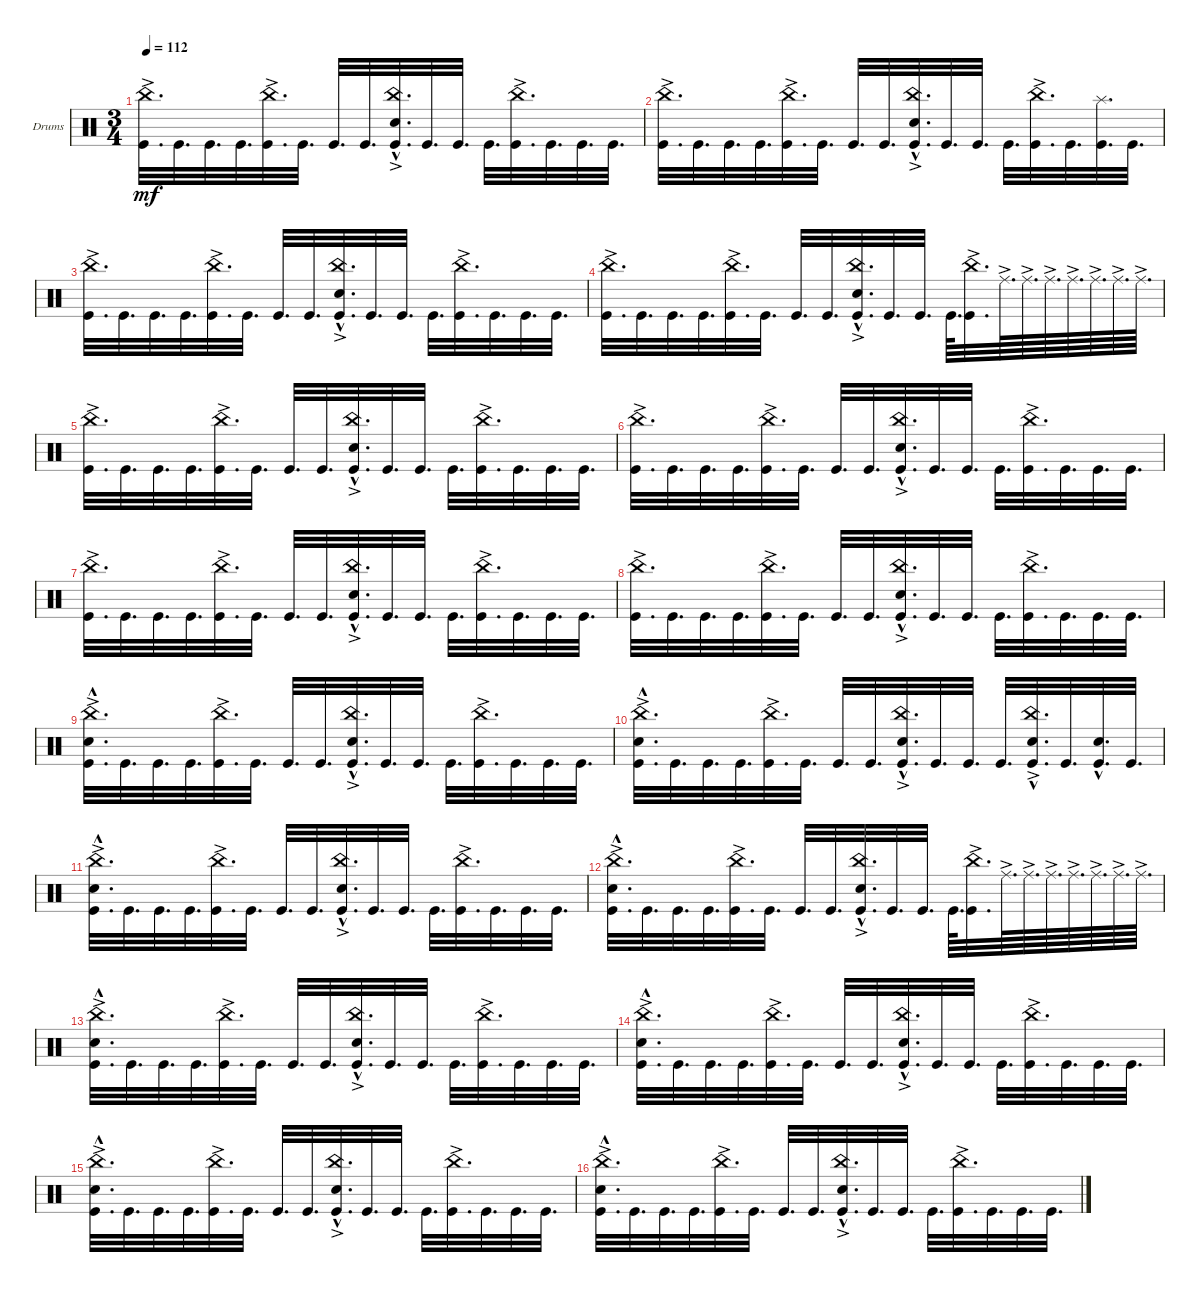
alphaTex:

\bracketExtendMode groupsimilarinstruments
\firstSystemTrackNameOrientation horizontal
\otherSystemsTrackNameOrientation horizontal
\track ("Drumkit" "Drums") {instrument percussion}
\staff {score}
\articulation defaults
\ts (3 4)
\tempo 112
\clef neutral
\ks c
("Kick (hit)" "China (hit)"{ac}).32{d dy mf} "Kick (hit)".32{d} "Kick (hit)".32{d} "Kick (hit)".32{d} ("Kick (hit)" "China (hit)"{ac}).32{d} "Kick (hit)".32{d} "Kick (hit)".32{d} "Kick (hit)".32{d} ("Kick (hit)" "Snare (hit) 2"{hac} "China (hit)"{ac}).32{d} "Kick (hit)".32{d} "Kick (hit)".32{d} "Kick (hit)".32{d} ("Kick (hit)" "China (hit)"{ac}).32{d} "Kick (hit)".32{d} "Kick (hit)".32{d} "Kick (hit)".32{d} |
("Kick (hit)" "China (hit)"{ac}).32{d} "Kick (hit)".32{d} "Kick (hit)".32{d} "Kick (hit)".32{d} ("Kick (hit)" "China (hit)"{ac}).32{d} "Kick (hit)".32{d} "Kick (hit)".32{d} "Kick (hit)".32{d} ("Kick (hit)" "Snare (hit) 2"{hac} "China (hit)"{ac}).32{d} "Kick (hit)".32{d} "Kick (hit)".32{d} "Kick (hit)".32{d} ("Kick (hit)" "China (hit)"{ac}).32{d} "Kick (hit)".32{d} ("Kick (hit)" "Splash (hit)").32{d} "Kick (hit)".32{d} |
("Kick (hit)" "China (hit)"{ac}).32{d} "Kick (hit)".32{d} "Kick (hit)".32{d} "Kick (hit)".32{d} ("Kick (hit)" "China (hit)"{ac}).32{d} "Kick (hit)".32{d} "Kick (hit)".32{d} "Kick (hit)".32{d} ("Kick (hit)" "Snare (hit) 2"{hac} "China (hit)"{ac}).32{d} "Kick (hit)".32{d} "Kick (hit)".32{d} "Kick (hit)".32{d} ("Kick (hit)" "China (hit)"{ac}).32{d} "Kick (hit)".32{d} "Kick (hit)".32{d} "Kick (hit)".32{d} |
("Kick (hit)" "China (hit)"{ac}).32{d} "Kick (hit)".32{d} "Kick (hit)".32{d} "Kick (hit)".32{d} ("Kick (hit)" "China (hit)"{ac}).32{d} "Kick (hit)".32{d} "Kick (hit)".32{d} "Kick (hit)".32{d} ("Kick (hit)" "Snare (hit) 2"{hac} "China (hit)"{ac}).32{d} "Kick (hit)".32{d} "Kick (hit)".32{d} "Kick (hit)".64{d} ("Kick (hit)" "China (hit)"{ac}).32{d} "Ride (middle)"{ac}.64{d} "Ride (middle)"{ac}.64{d} "Ride (middle)"{ac}.64{d} "Ride (middle)"{ac}.64{d} "Ride (middle)"{ac}.64{d} "Ride (middle)"{ac}.64{d} "Ride (middle)"{ac}.64{d} |
("Kick (hit)" "China (hit)"{ac}).32{d} "Kick (hit)".32{d} "Kick (hit)".32{d} "Kick (hit)".32{d} ("Kick (hit)" "China (hit)"{ac}).32{d} "Kick (hit)".32{d} "Kick (hit)".32{d} "Kick (hit)".32{d} ("Kick (hit)" "Snare (hit) 2"{hac} "China (hit)"{ac}).32{d} "Kick (hit)".32{d} "Kick (hit)".32{d} "Kick (hit)".32{d} ("Kick (hit)" "China (hit)"{ac}).32{d} "Kick (hit)".32{d} "Kick (hit)".32{d} "Kick (hit)".32{d} |
("Kick (hit)" "China (hit)"{ac}).32{d} "Kick (hit)".32{d} "Kick (hit)".32{d} "Kick (hit)".32{d} ("Kick (hit)" "China (hit)"{ac}).32{d} "Kick (hit)".32{d} "Kick (hit)".32{d} "Kick (hit)".32{d} ("Kick (hit)" "Snare (hit) 2"{hac} "China (hit)"{ac}).32{d} "Kick (hit)".32{d} "Kick (hit)".32{d} "Kick (hit)".32{d} ("Kick (hit)" "China (hit)"{ac}).32{d} "Kick (hit)".32{d} "Kick (hit)".32{d} "Kick (hit)".32{d} |
("Kick (hit)" "China (hit)"{ac}).32{d} "Kick (hit)".32{d} "Kick (hit)".32{d} "Kick (hit)".32{d} ("Kick (hit)" "China (hit)"{ac}).32{d} "Kick (hit)".32{d} "Kick (hit)".32{d} "Kick (hit)".32{d} ("Kick (hit)" "Snare (hit) 2"{hac} "China (hit)"{ac}).32{d} "Kick (hit)".32{d} "Kick (hit)".32{d} "Kick (hit)".32{d} ("Kick (hit)" "China (hit)"{ac}).32{d} "Kick (hit)".32{d} "Kick (hit)".32{d} "Kick (hit)".32{d} |
("Kick (hit)" "China (hit)"{ac}).32{d} "Kick (hit)".32{d} "Kick (hit)".32{d} "Kick (hit)".32{d} ("Kick (hit)" "China (hit)"{ac}).32{d} "Kick (hit)".32{d} "Kick (hit)".32{d} "Kick (hit)".32{d} ("Kick (hit)" "Snare (hit) 2"{hac} "China (hit)"{ac}).32{d} "Kick (hit)".32{d} "Kick (hit)".32{d} "Kick (hit)".32{d} ("Kick (hit)" "China (hit)"{ac}).32{d} "Kick (hit)".32{d} "Kick (hit)".32{d} "Kick (hit)".32{d} |
("Kick (hit)" "China (hit)"{ac} "Snare (hit) 2"{hac}).32{d} "Kick (hit)".32{d} "Kick (hit)".32{d} "Kick (hit)".32{d} ("Kick (hit)" "China (hit)"{ac}).32{d} "Kick (hit)".32{d} "Kick (hit)".32{d} "Kick (hit)".32{d} ("Kick (hit)" "Snare (hit) 2"{hac} "China (hit)"{ac}).32{d} "Kick (hit)".32{d} "Kick (hit)".32{d} "Kick (hit)".32{d} ("Kick (hit)" "China (hit)"{ac}).32{d} "Kick (hit)".32{d} "Kick (hit)".32{d} "Kick (hit)".32{d} |
("Kick (hit)" "China (hit)"{ac} "Snare (hit) 2"{hac}).32{d} "Kick (hit)".32{d} "Kick (hit)".32{d} "Kick (hit)".32{d} ("Kick (hit)" "China (hit)"{ac}).32{d} "Kick (hit)".32{d} "Kick (hit)".32{d} "Kick (hit)".32{d} ("Kick (hit)" "Snare (hit) 2"{hac} "China (hit)"{ac}).32{d} "Kick (hit)".32{d} "Kick (hit)".32{d} "Kick (hit)".32{d} ("Kick (hit)" "China (hit)"{ac} "Snare (hit) 2"{hac}).32{d} "Kick (hit)".32{d} ("Kick (hit)" "Snare (hit) 2"{hac}).32{d} "Kick (hit)".32{d} |
("Kick (hit)" "China (hit)"{ac} "Snare (hit) 2"{hac}).32{d} "Kick (hit)".32{d} "Kick (hit)".32{d} "Kick (hit)".32{d} ("Kick (hit)" "China (hit)"{ac}).32{d} "Kick (hit)".32{d} "Kick (hit)".32{d} "Kick (hit)".32{d} ("Kick (hit)" "Snare (hit) 2"{hac} "China (hit)"{ac}).32{d} "Kick (hit)".32{d} "Kick (hit)".32{d} "Kick (hit)".32{d} ("Kick (hit)" "China (hit)"{ac}).32{d} "Kick (hit)".32{d} "Kick (hit)".32{d} "Kick (hit)".32{d} |
("Kick (hit)" "China (hit)"{ac} "Snare (hit) 2"{hac}).32{d} "Kick (hit)".32{d} "Kick (hit)".32{d} "Kick (hit)".32{d} ("Kick (hit)" "China (hit)"{ac}).32{d} "Kick (hit)".32{d} "Kick (hit)".32{d} "Kick (hit)".32{d} ("Kick (hit)" "Snare (hit) 2"{hac} "China (hit)"{ac}).32{d} "Kick (hit)".32{d} "Kick (hit)".32{d} "Kick (hit)".64{d} ("Kick (hit)" "China (hit)"{ac}).32{d} "Ride (middle)"{ac}.64{d} "Ride (middle)"{ac}.64{d} "Ride (middle)"{ac}.64{d} "Ride (middle)"{ac}.64{d} "Ride (middle)"{ac}.64{d} "Ride (middle)"{ac}.64{d} "Ride (middle)"{ac}.64{d} |
("Kick (hit)" "China (hit)"{ac} "Snare (hit) 2"{hac}).32{d} "Kick (hit)".32{d} "Kick (hit)".32{d} "Kick (hit)".32{d} ("Kick (hit)" "China (hit)"{ac}).32{d} "Kick (hit)".32{d} "Kick (hit)".32{d} "Kick (hit)".32{d} ("Kick (hit)" "Snare (hit) 2"{hac} "China (hit)"{ac}).32{d} "Kick (hit)".32{d} "Kick (hit)".32{d} "Kick (hit)".32{d} ("Kick (hit)" "China (hit)"{ac}).32{d} "Kick (hit)".32{d} "Kick (hit)".32{d} "Kick (hit)".32{d} |
("Kick (hit)" "China (hit)"{ac} "Snare (hit) 2"{hac}).32{d} "Kick (hit)".32{d} "Kick (hit)".32{d} "Kick (hit)".32{d} ("Kick (hit)" "China (hit)"{ac}).32{d} "Kick (hit)".32{d} "Kick (hit)".32{d} "Kick (hit)".32{d} ("Kick (hit)" "Snare (hit) 2"{hac} "China (hit)"{ac}).32{d} "Kick (hit)".32{d} "Kick (hit)".32{d} "Kick (hit)".32{d} ("Kick (hit)" "China (hit)"{ac}).32{d} "Kick (hit)".32{d} "Kick (hit)".32{d} "Kick (hit)".32{d} |
("Kick (hit)" "China (hit)"{ac} "Snare (hit) 2"{hac}).32{d} "Kick (hit)".32{d} "Kick (hit)".32{d} "Kick (hit)".32{d} ("Kick (hit)" "China (hit)"{ac}).32{d} "Kick (hit)".32{d} "Kick (hit)".32{d} "Kick (hit)".32{d} ("Kick (hit)" "Snare (hit) 2"{hac} "China (hit)"{ac}).32{d} "Kick (hit)".32{d} "Kick (hit)".32{d} "Kick (hit)".32{d} ("Kick (hit)" "China (hit)"{ac}).32{d} "Kick (hit)".32{d} "Kick (hit)".32{d} "Kick (hit)".32{d} |
("Kick (hit)" "China (hit)"{ac} "Snare (hit) 2"{hac}).32{d} "Kick (hit)".32{d} "Kick (hit)".32{d} "Kick (hit)".32{d} ("Kick (hit)" "China (hit)"{ac}).32{d} "Kick (hit)".32{d} "Kick (hit)".32{d} "Kick (hit)".32{d} ("Kick (hit)" "Snare (hit) 2"{hac} "China (hit)"{ac}).32{d} "Kick (hit)".32{d} "Kick (hit)".32{d} "Kick (hit)".32{d} ("Kick (hit)" "China (hit)"{ac}).32{d} "Kick (hit)".32{d} "Kick (hit)".32{d} "Kick (hit)".32{d}
